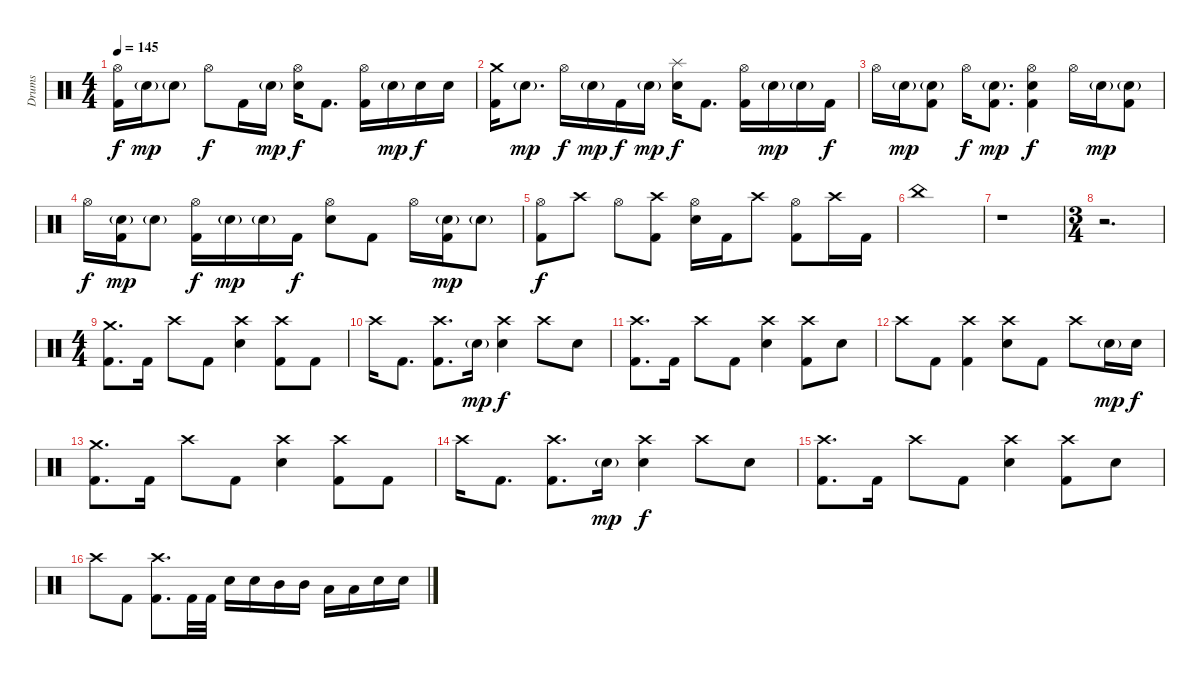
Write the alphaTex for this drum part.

\track ("Drums" "Drums") {instrument percussion}
\staff {score}
\articulation defaults
\ts (4 4)
\tempo 145
\clef neutral
\ks c
("Hi-Hat (open)" "Kick (hit) 2").16{dy f} "Snare (hit) 2"{g}.16{dy mp} "Snare (hit) 2"{g}.8 "Hi-Hat (open)".8{dy f} "Kick (hit) 2".16 "Snare (hit) 2"{g}.16{dy mp} ("Hi-Hat (open)" "Snare (hit) 2").16{dy f} "Kick (hit) 2".8{d} ("Hi-Hat (open)" "Kick (hit) 2").16 "Snare (hit) 2"{g}.16{dy mp} "Snare (hit) 2".16{dy f} "Snare (hit) 2".16 |
("Crash medium (hit)" "Kick (hit) 2").16 "Snare (hit) 2"{g}.8{d dy mp} "Hi-Hat (open)".16{dy f} "Snare (hit) 2"{g}.16{dy mp} "Kick (hit) 2".16{dy f} "Snare (hit) 2"{g}.16{dy mp} ("Splash (hit)" "Snare (hit) 2").16{dy f} "Kick (hit) 2".8{d} ("Hi-Hat (open)" "Kick (hit) 2").16 "Snare (hit) 2"{g}.16{dy mp} "Snare (hit) 2"{g}.16 "Kick (hit) 2".16{dy f} |
"Hi-Hat (open)".16 "Snare (hit) 2"{g}.16{dy mp} ("Snare (hit) 2"{g} "Kick (hit) 2").8 "Hi-Hat (open)".16{dy f} ("Snare (hit) 2"{g} "Kick (hit) 2").8{d dy mp} ("Hi-Hat (open)" "Snare (hit) 2" "Kick (hit) 2").4{dy f} "Hi-Hat (open)".16 "Snare (hit) 2"{g}.16{dy mp} ("Snare (hit) 2"{g} "Kick (hit) 2").8 |
"Hi-Hat (open)".16{dy f} ("Snare (hit) 2"{g} "Kick (hit) 2").16{dy mp} "Snare (hit) 2"{g}.8 ("Hi-Hat (open)" "Kick (hit) 2").16{dy f} "Snare (hit) 2"{g}.16{dy mp} "Snare (hit) 2"{g}.16 "Kick (hit) 2".16{dy f} ("Hi-Hat (open)" "Snare (hit) 2").8 "Kick (hit) 2".8 "Hi-Hat (open)".16 ("Snare (hit) 2"{g} "Kick (hit) 2").16{dy mp} "Snare (hit) 2"{g}.8 |
("Hi-Hat (open)" "Kick (hit) 2").8{dy f} "Crash high (hit)".8 "Hi-Hat (open)".8 ("Crash high (hit)" "Kick (hit) 2").8 ("Hi-Hat (open)" "Snare (hit) 2").16 "Kick (hit) 2".16 "Crash high (hit)".8 ("Hi-Hat (open)" "Kick (hit) 2").8 "Crash high (hit)".16 "Kick (hit) 2".16 |
"China (hit)".1 |
r.1 |
\ts (3 4)
r.2{d} |
\ts (4 4)
("Crash medium (hit)" "Kick (hit) 2").8{d} "Kick (hit) 2".16 "Crash high (hit)".8 "Kick (hit) 2".8 ("Crash high (hit)" "Snare (hit) 2").4 ("Crash high (hit)" "Kick (hit) 2").8 "Kick (hit) 2".8 |
"Crash high (hit)".16 "Kick (hit) 2".8{d} ("Crash high (hit)" "Kick (hit) 2").8{d} "Snare (hit) 2"{g}.16{dy mp} ("Crash high (hit)" "Snare (hit) 2").4{dy f} "Crash high (hit)".8 "Snare (hit) 2".8 |
("Crash high (hit)" "Kick (hit) 2").8{d} "Kick (hit) 2".16 "Crash high (hit)".8 "Kick (hit) 2".8 ("Crash high (hit)" "Snare (hit) 2").4 ("Crash high (hit)" "Kick (hit) 2").8 "Snare (hit) 2".8 |
"Crash high (hit)".8 "Kick (hit) 2".8 ("Crash high (hit)" "Kick (hit) 2").4 ("Crash high (hit)" "Snare (hit) 2").8 "Kick (hit) 2".8 "Crash high (hit)".8 "Snare (hit) 2"{g}.16{dy mp} "Snare (hit) 2".16{dy f} |
("Crash medium (hit)" "Kick (hit) 2").8{d} "Kick (hit) 2".16 "Crash high (hit)".8 "Kick (hit) 2".8 ("Crash high (hit)" "Snare (hit) 2").4 ("Crash high (hit)" "Kick (hit) 2").8 "Kick (hit) 2".8 |
"Crash high (hit)".16 "Kick (hit) 2".8{d} ("Crash high (hit)" "Kick (hit) 2").8{d} "Snare (hit) 2"{g}.16{dy mp} ("Crash high (hit)" "Snare (hit) 2").4{dy f} "Crash high (hit)".8 "Snare (hit) 2".8 |
("Crash high (hit)" "Kick (hit) 2").8{d} "Kick (hit) 2".16 "Crash high (hit)".8 "Kick (hit) 2".8 ("Crash high (hit)" "Snare (hit) 2").4 ("Crash high (hit)" "Kick (hit) 2").8 "Snare (hit) 2".8 |
"Crash high (hit)".8 "Kick (hit) 2".8 ("Crash high (hit)" "Kick (hit) 2").8{d} "Kick (hit) 2".32 "Kick (hit) 2".32 "Snare (hit) 2".16 "Snare (hit) 2".16 "Mid Tom (hit)".16 "Mid Tom (hit)".16 "Low Tom (hit)".16 "Low Tom (hit)".16 "Snare (hit) 2".16 "Snare (hit) 2".16
